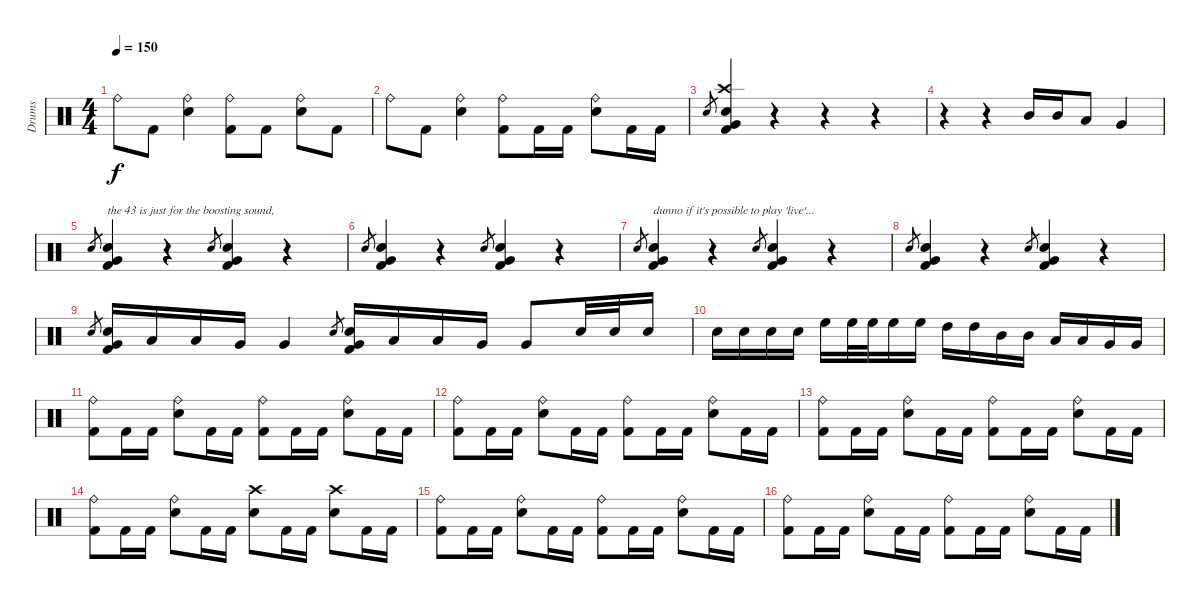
\track ("Drums" "Drums") {instrument percussion}
\staff {score}
\articulation defaults
\ts (4 4)
\tempo 150
\clef neutral
\ks c "Ride (bell)".8{dy f} "Kick (hit) 2".8
("Ride (bell)" "Electric Snare (hit)").4 ("Ride (bell)" "Kick (hit) 2").8 "Kick (hit) 2".8 ("Ride (bell)" "Electric Snare (hit)").8 "Kick (hit) 2".8 |
"Ride (bell)".8 "Kick (hit) 2".8 ("Ride (bell)" "Electric Snare (hit)").4 ("Ride (bell)" "Kick (hit) 2").8 "Kick (hit) 2".16 "Kick (hit) 2".16 ("Ride (bell)" "Electric Snare (hit)").8 "Kick (hit) 2".16 "Kick (hit) 2".16 |
"Electric Snare (hit)".8{gr} ("Crash high (hit)" "Very Low Tom (hit)" "Electric Snare (hit)" "Kick (hit) 2").4 r.4 r.4 r.4 |
r.4 r.4 "Mid Tom (hit)".16 "Mid Tom (hit)".16 "Low Tom (hit)".8 "Very Low Tom (hit)".4 |
"Electric Snare (hit)".8{gr} ("Very Low Tom (hit)" "Electric Snare (hit)" "Kick (hit) 2").4{txt "the 43 is just for the boosting sound,"} r.4 "Electric Snare (hit)".8{gr} ("Very Low Tom (hit)" "Electric Snare (hit)" "Kick (hit) 2").4 r.4 |
"Electric Snare (hit)".8{gr} ("Very Low Tom (hit)" "Electric Snare (hit)" "Kick (hit) 2").4 r.4 "Electric Snare (hit)".8{gr} ("Very Low Tom (hit)" "Electric Snare (hit)" "Kick (hit) 2").4 r.4 |
"Electric Snare (hit)".8{gr} ("Very Low Tom (hit)" "Electric Snare (hit)" "Kick (hit) 2").4{txt "dunno if it's possible to play 'live'..."} r.4 "Electric Snare (hit)".8{gr} ("Very Low Tom (hit)" "Electric Snare (hit)" "Kick (hit) 2").4 r.4 |
"Electric Snare (hit)".8{gr} ("Very Low Tom (hit)" "Electric Snare (hit)" "Kick (hit) 2").4 r.4 "Electric Snare (hit)".8{gr} ("Very Low Tom (hit)" "Electric Snare (hit)" "Kick (hit) 2").4 r.4 |
"Electric Snare (hit)".8{gr} ("Very Low Tom (hit)" "Electric Snare (hit)" "Kick (hit) 2").16 "Low Tom (hit)".16 "Low Tom (hit)".16 "Very Low Tom (hit)".16 "Very Low Tom (hit)".4 "Electric Snare (hit)".8{gr} ("Very Low Tom (hit)" "Electric Snare (hit)" "Kick (hit) 2").16 "Low Tom (hit)".16 "Low Tom (hit)".16 "Very Low Tom (hit)".16 "Very Low Tom (hit)".8 "Electric Snare (hit)".32 "Electric Snare (hit)".32 "Electric Snare (hit)".16 |
"Electric Snare (hit)".16 "Electric Snare (hit)".16 "Electric Snare (hit)".16 "Electric Snare (hit)".16 "High Floor Tom (hit)".16 "High Floor Tom (hit)".32 "High Floor Tom (hit)".32 "High Floor Tom (hit)".16 "High Floor Tom (hit)".16 "High Tom (hit)".16 "High Tom (hit)".16 "Mid Tom (hit)".16 "Mid Tom (hit)".16 "Low Tom (hit)".16 "Low Tom (hit)".16 "Very Low Tom (hit)".16 "Very Low Tom (hit)".16 |
("Ride (bell)" "Kick (hit) 2").8 "Kick (hit) 2".16 "Kick (hit) 2".16 ("Ride (bell)" "Electric Snare (hit)").8 "Kick (hit) 2".16 "Kick (hit) 2".16 ("Ride (bell)" "Kick (hit) 2").8 "Kick (hit) 2".16 "Kick (hit) 2".16 ("Ride (bell)" "Electric Snare (hit)").8 "Kick (hit) 2".16 "Kick (hit) 2".16 |
("Ride (bell)" "Kick (hit) 2").8 "Kick (hit) 2".16 "Kick (hit) 2".16 ("Ride (bell)" "Electric Snare (hit)").8 "Kick (hit) 2".16 "Kick (hit) 2".16 ("Ride (bell)" "Kick (hit) 2").8 "Kick (hit) 2".16 "Kick (hit) 2".16 ("Ride (bell)" "Electric Snare (hit)").8 "Kick (hit) 2".16 "Kick (hit) 2".16 |
("Ride (bell)" "Kick (hit) 2").8 "Kick (hit) 2".16 "Kick (hit) 2".16 ("Ride (bell)" "Electric Snare (hit)").8 "Kick (hit) 2".16 "Kick (hit) 2".16 ("Ride (bell)" "Kick (hit) 2").8 "Kick (hit) 2".16 "Kick (hit) 2".16 ("Ride (bell)" "Electric Snare (hit)").8 "Kick (hit) 2".16 "Kick (hit) 2".16 |
("Ride (bell)" "Kick (hit) 2").8 "Kick (hit) 2".16 "Kick (hit) 2".16 ("Ride (bell)" "Electric Snare (hit)").8 "Kick (hit) 2".16 "Kick (hit) 2".16 ("Crash high (hit)" "Electric Snare (hit)").8 "Kick (hit) 2".16 "Kick (hit) 2".16 ("Crash high (hit)" "Electric Snare (hit)").8 "Kick (hit) 2".16 "Kick (hit) 2".16 |
("Ride (bell)" "Kick (hit) 2").8 "Kick (hit) 2".16 "Kick (hit) 2".16 ("Ride (bell)" "Electric Snare (hit)").8 "Kick (hit) 2".16 "Kick (hit) 2".16 ("Ride (bell)" "Kick (hit) 2").8 "Kick (hit) 2".16 "Kick (hit) 2".16 ("Ride (bell)" "Electric Snare (hit)").8 "Kick (hit) 2".16 "Kick (hit) 2".16 |
("Ride (bell)" "Kick (hit) 2").8 "Kick (hit) 2".16 "Kick (hit) 2".16 ("Ride (bell)" "Electric Snare (hit)").8 "Kick (hit) 2".16 "Kick (hit) 2".16 ("Ride (bell)" "Kick (hit) 2").8 "Kick (hit) 2".16 "Kick (hit) 2".16 ("Ride (bell)" "Electric Snare (hit)").8 "Kick (hit) 2".16 "Kick (hit) 2".16
